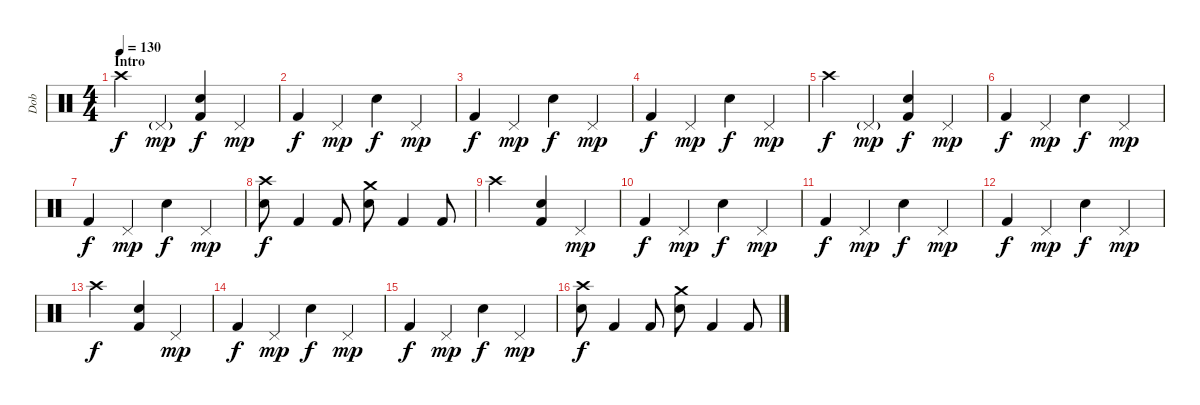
\track ("Dob" "Dob") {instrument percussion}
\staff {score}
\articulation defaults
\ts (4 4)
\section ("" "Intro")
\tempo 130
\clef neutral
\ks c "Crash high (hit)".4{dy f} "Pedal Hi-Hat (hit)"{g}.4{dy mp}
("Kick (hit) 2" "Snare (hit) 2").4{dy f} "Pedal Hi-Hat (hit)".4{dy mp} |
"Kick (hit) 2".4{dy f} "Pedal Hi-Hat (hit)".4{dy mp} "Snare (hit) 2".4{dy f} "Pedal Hi-Hat (hit)".4{dy mp} |
"Kick (hit) 2".4{dy f} "Pedal Hi-Hat (hit)".4{dy mp} "Snare (hit) 2".4{dy f} "Pedal Hi-Hat (hit)".4{dy mp} |
"Kick (hit) 2".4{dy f} "Pedal Hi-Hat (hit)".4{dy mp} "Snare (hit) 2".4{dy f} "Pedal Hi-Hat (hit)".4{dy mp} |
"Crash high (hit)".4{dy f} "Pedal Hi-Hat (hit)"{g}.4{dy mp} ("Kick (hit) 2" "Snare (hit) 2").4{dy f} "Pedal Hi-Hat (hit)".4{dy mp} |
"Kick (hit) 2".4{dy f} "Pedal Hi-Hat (hit)".4{dy mp} "Snare (hit) 2".4{dy f} "Pedal Hi-Hat (hit)".4{dy mp} |
"Kick (hit) 2".4{dy f} "Pedal Hi-Hat (hit)".4{dy mp} "Snare (hit) 2".4{dy f} "Pedal Hi-Hat (hit)".4{dy mp} |
("Crash high (hit)" "Snare (hit) 2").8{dy f} "Kick (hit) 2".4 "Kick (hit) 2".8 ("Crash medium (hit)" "Snare (hit) 2").8 "Kick (hit) 2".4 "Kick (hit) 2".8 |
"Crash high (hit)".2 ("Kick (hit) 2" "Snare (hit) 2").4 "Pedal Hi-Hat (hit)".4{dy mp} |
"Kick (hit) 2".4{dy f} "Pedal Hi-Hat (hit)".4{dy mp} "Snare (hit) 2".4{dy f} "Pedal Hi-Hat (hit)".4{dy mp} |
"Kick (hit) 2".4{dy f} "Pedal Hi-Hat (hit)".4{dy mp} "Snare (hit) 2".4{dy f} "Pedal Hi-Hat (hit)".4{dy mp} |
"Kick (hit) 2".4{dy f} "Pedal Hi-Hat (hit)".4{dy mp} "Snare (hit) 2".4{dy f} "Pedal Hi-Hat (hit)".4{dy mp} |
"Crash high (hit)".2{dy f} ("Kick (hit) 2" "Snare (hit) 2").4 "Pedal Hi-Hat (hit)".4{dy mp} |
"Kick (hit) 2".4{dy f} "Pedal Hi-Hat (hit)".4{dy mp} "Snare (hit) 2".4{dy f} "Pedal Hi-Hat (hit)".4{dy mp} |
"Kick (hit) 2".4{dy f} "Pedal Hi-Hat (hit)".4{dy mp} "Snare (hit) 2".4{dy f} "Pedal Hi-Hat (hit)".4{dy mp} |
("Crash high (hit)" "Snare (hit) 2").8{dy f} "Kick (hit) 2".4 "Kick (hit) 2".8 ("Crash medium (hit)" "Snare (hit) 2").8 "Kick (hit) 2".4 "Kick (hit) 2".8
